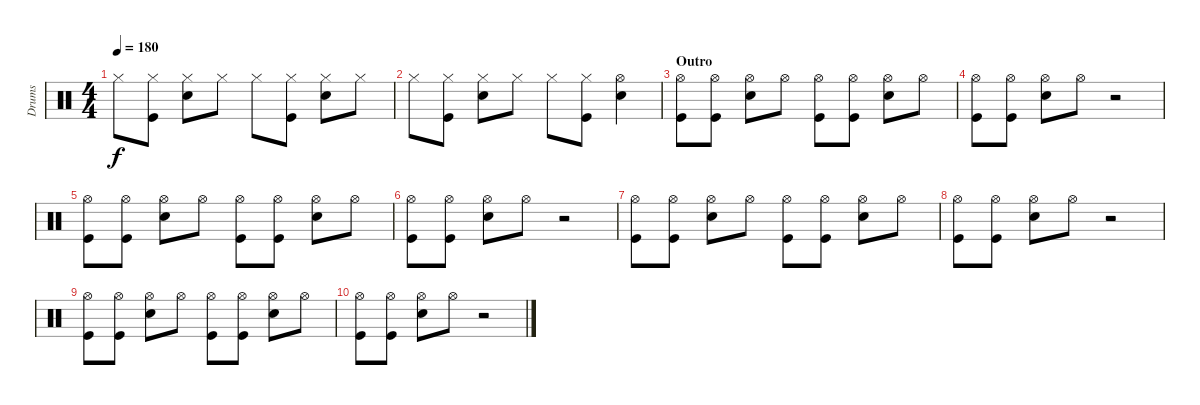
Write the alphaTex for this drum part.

\track ("Drums" "Drums") {instrument percussion}
\staff {score}
\articulation defaults
\ts (4 4)
\tempo 180
\clef neutral
\ks c "Hi-Hat (closed)".8{dy f}
("Hi-Hat (closed)" "Kick (hit)").8 ("Hi-Hat (closed)" "Electric Snare (hit)").8 "Hi-Hat (closed)".8 "Hi-Hat (closed)".8 ("Hi-Hat (closed)" "Kick (hit)").8 ("Hi-Hat (closed)" "Electric Snare (hit)").8 "Hi-Hat (closed)".8 |
"Hi-Hat (closed)".8 ("Hi-Hat (closed)" "Kick (hit)").8 ("Hi-Hat (closed)" "Electric Snare (hit)").8 "Hi-Hat (closed)".8 "Hi-Hat (closed)".8 ("Hi-Hat (closed)" "Kick (hit)").8 ("Hi-Hat (open)" "Electric Snare (hit)").4 |
\section ("" "Outro")
("Hi-Hat (open)" "Kick (hit)").8 ("Hi-Hat (open)" "Kick (hit)").8 ("Hi-Hat (open)" "Electric Snare (hit)").8 "Hi-Hat (open)".8 ("Hi-Hat (open)" "Kick (hit)").8 ("Hi-Hat (open)" "Kick (hit)").8 ("Hi-Hat (open)" "Electric Snare (hit)").8 "Hi-Hat (open)".8 |
("Hi-Hat (open)" "Kick (hit)").8 ("Hi-Hat (open)" "Kick (hit)").8 ("Hi-Hat (open)" "Electric Snare (hit)").8 "Hi-Hat (open)".8 r.2 |
("Hi-Hat (open)" "Kick (hit)").8 ("Hi-Hat (open)" "Kick (hit)").8 ("Hi-Hat (open)" "Electric Snare (hit)").8 "Hi-Hat (open)".8 ("Hi-Hat (open)" "Kick (hit)").8 ("Hi-Hat (open)" "Kick (hit)").8 ("Hi-Hat (open)" "Electric Snare (hit)").8 "Hi-Hat (open)".8 |
("Hi-Hat (open)" "Kick (hit)").8 ("Hi-Hat (open)" "Kick (hit)").8 ("Hi-Hat (open)" "Electric Snare (hit)").8 "Hi-Hat (open)".8 r.2 |
("Hi-Hat (open)" "Kick (hit)").8 ("Hi-Hat (open)" "Kick (hit)").8 ("Hi-Hat (open)" "Electric Snare (hit)").8 "Hi-Hat (open)".8 ("Hi-Hat (open)" "Kick (hit)").8 ("Hi-Hat (open)" "Kick (hit)").8 ("Hi-Hat (open)" "Electric Snare (hit)").8 "Hi-Hat (open)".8 |
("Hi-Hat (open)" "Kick (hit)").8 ("Hi-Hat (open)" "Kick (hit)").8 ("Hi-Hat (open)" "Electric Snare (hit)").8 "Hi-Hat (open)".8 r.2 |
("Hi-Hat (open)" "Kick (hit)").8 ("Hi-Hat (open)" "Kick (hit)").8 ("Hi-Hat (open)" "Electric Snare (hit)").8 "Hi-Hat (open)".8 ("Hi-Hat (open)" "Kick (hit)").8 ("Hi-Hat (open)" "Kick (hit)").8 ("Hi-Hat (open)" "Electric Snare (hit)").8 "Hi-Hat (open)".8 |
("Hi-Hat (open)" "Kick (hit)").8 ("Hi-Hat (open)" "Kick (hit)").8 ("Hi-Hat (open)" "Electric Snare (hit)").8 "Hi-Hat (open)".8 r.2
